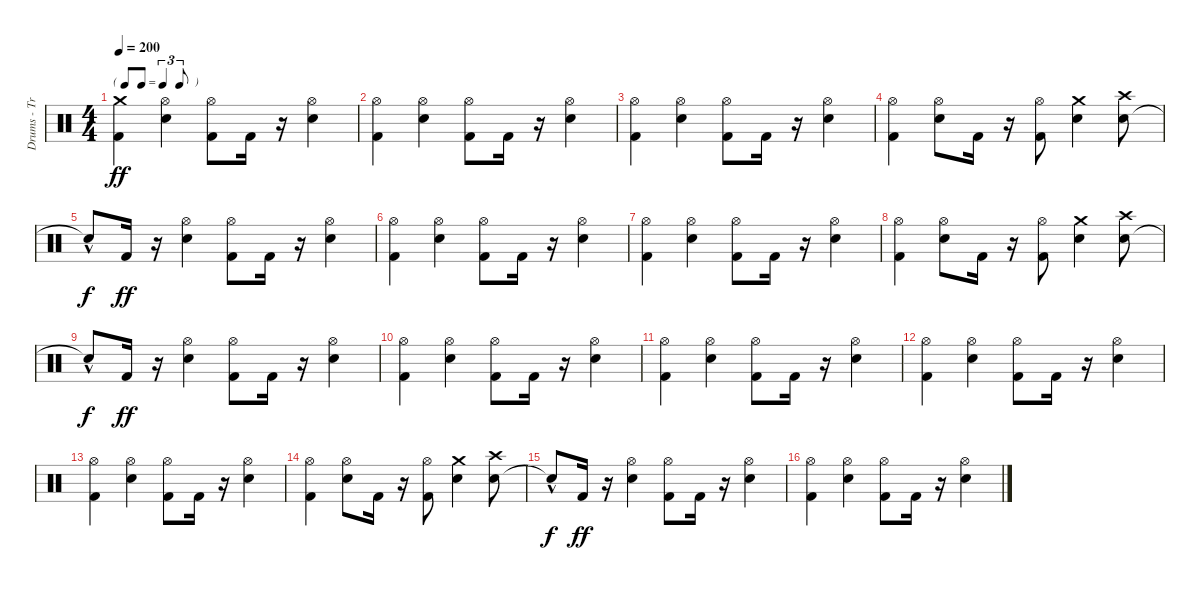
\track ("Drums - Travis" "Drums - Tr") {instrument percussion}
\staff {score}
\articulation defaults
\ts (4 4)
\tf triplet8th
\tempo 200
\clef neutral
\ks c
("Kick (hit) 2" "Crash medium (hit)").4{dy ff} ("Electric Snare (hit)" "Hi-Hat (open)").4 ("Kick (hit) 2" "Hi-Hat (open)").8 "Kick (hit) 2".16 r.16 ("Electric Snare (hit)" "Hi-Hat (open)").4 |
("Hi-Hat (open)" "Kick (hit) 2").4 ("Hi-Hat (open)" "Electric Snare (hit)").4 ("Hi-Hat (open)" "Kick (hit) 2").8 "Kick (hit) 2".16 r.16 ("Hi-Hat (open)" "Electric Snare (hit)").4 |
("Kick (hit) 2" "Hi-Hat (open)").4 ("Electric Snare (hit)" "Hi-Hat (open)").4 ("Kick (hit) 2" "Hi-Hat (open)").8 "Kick (hit) 2".16 r.16 ("Electric Snare (hit)" "Hi-Hat (open)").4 |
("Kick (hit) 2" "Hi-Hat (open)").4 ("Electric Snare (hit)" "Hi-Hat (open)").8 "Kick (hit) 2".16 r.16 ("Kick (hit) 2" "Hi-Hat (open)").8 ("Electric Snare (hit)" "Crash medium (hit)").4 ("Electric Snare (hit)" "Crash high (hit)").8 |
"Snare (hit)"{hac t}.8{dy f} "Kick (hit) 2".16{dy ff} r.16 ("Electric Snare (hit)" "Hi-Hat (open)").4 ("Kick (hit) 2" "Hi-Hat (open)").8 "Kick (hit) 2".16 r.16 ("Electric Snare (hit)" "Hi-Hat (open)").4 |
("Kick (hit) 2" "Hi-Hat (open)").4 ("Electric Snare (hit)" "Hi-Hat (open)").4 ("Kick (hit) 2" "Hi-Hat (open)").8 "Kick (hit) 2".16 r.16 ("Electric Snare (hit)" "Hi-Hat (open)").4 |
("Kick (hit) 2" "Hi-Hat (open)").4 ("Electric Snare (hit)" "Hi-Hat (open)").4 ("Kick (hit) 2" "Hi-Hat (open)").8 "Kick (hit) 2".16 r.16 ("Electric Snare (hit)" "Hi-Hat (open)").4 |
("Kick (hit) 2" "Hi-Hat (open)").4 ("Electric Snare (hit)" "Hi-Hat (open)").8 "Kick (hit) 2".16 r.16 ("Kick (hit) 2" "Hi-Hat (open)").8 ("Electric Snare (hit)" "Crash medium (hit)").4 ("Electric Snare (hit)" "Crash high (hit)").8 |
"Snare (hit)"{hac t}.8{dy f} "Kick (hit) 2".16{dy ff} r.16 ("Electric Snare (hit)" "Hi-Hat (open)").4 ("Kick (hit) 2" "Hi-Hat (open)").8 "Kick (hit) 2".16 r.16 ("Electric Snare (hit)" "Hi-Hat (open)").4 |
("Kick (hit) 2" "Hi-Hat (open)").4 ("Electric Snare (hit)" "Hi-Hat (open)").4 ("Kick (hit) 2" "Hi-Hat (open)").8 "Kick (hit) 2".16 r.16 ("Electric Snare (hit)" "Hi-Hat (open)").4 |
("Kick (hit) 2" "Hi-Hat (open)").4 ("Electric Snare (hit)" "Hi-Hat (open)").4 ("Kick (hit) 2" "Hi-Hat (open)").8 "Kick (hit) 2".16 r.16 ("Electric Snare (hit)" "Hi-Hat (open)").4 |
("Hi-Hat (open)" "Kick (hit) 2").4 ("Hi-Hat (open)" "Electric Snare (hit)").4 ("Hi-Hat (open)" "Kick (hit) 2").8 "Kick (hit) 2".16 r.16 ("Hi-Hat (open)" "Electric Snare (hit)").4 |
("Kick (hit) 2" "Hi-Hat (open)").4 ("Electric Snare (hit)" "Hi-Hat (open)").4 ("Kick (hit) 2" "Hi-Hat (open)").8 "Kick (hit) 2".16 r.16 ("Electric Snare (hit)" "Hi-Hat (open)").4 |
("Kick (hit) 2" "Hi-Hat (open)").4 ("Electric Snare (hit)" "Hi-Hat (open)").8 "Kick (hit) 2".16 r.16 ("Kick (hit) 2" "Hi-Hat (open)").8 ("Electric Snare (hit)" "Crash medium (hit)").4 ("Electric Snare (hit)" "Crash high (hit)").8 |
"Snare (hit)"{hac t}.8{dy f} "Kick (hit) 2".16{dy ff} r.16 ("Electric Snare (hit)" "Hi-Hat (open)").4 ("Kick (hit) 2" "Hi-Hat (open)").8 "Kick (hit) 2".16 r.16 ("Electric Snare (hit)" "Hi-Hat (open)").4 |
("Kick (hit) 2" "Hi-Hat (open)").4 ("Electric Snare (hit)" "Hi-Hat (open)").4 ("Kick (hit) 2" "Hi-Hat (open)").8 "Kick (hit) 2".16 r.16 ("Electric Snare (hit)" "Hi-Hat (open)").4
